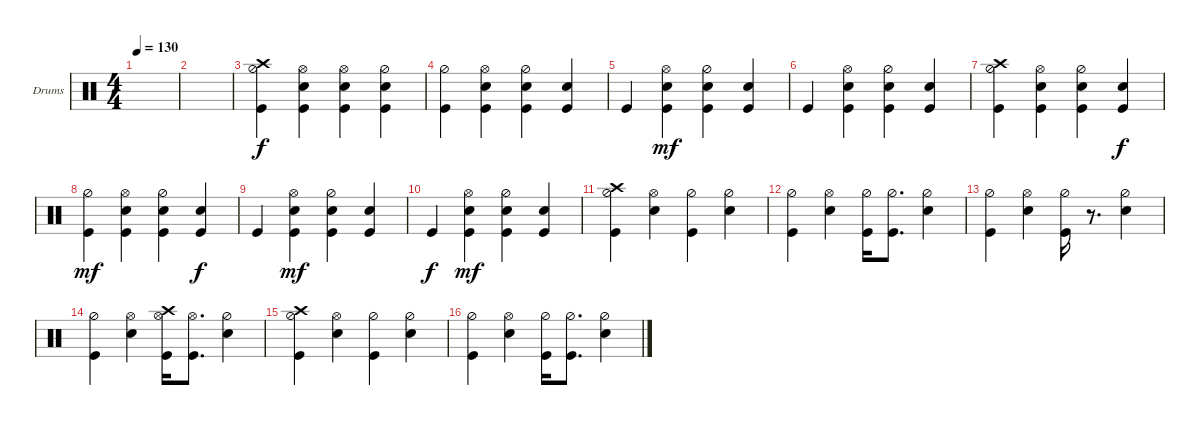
\defaultSystemsLayout 4
\bracketExtendMode groupsimilarinstruments
\firstSystemTrackNameOrientation horizontal
\otherSystemsTrackNameOrientation horizontal
\track ("Drumkit" "Drums") {instrument percussion}
\staff {score}
\articulation defaults
\ts (4 4)
\tempo 130
\clef neutral
\ks c
|
|
("Hi-Hat (half)" "Kick (hit)" "Crash high (hit)").4 ("Snare (hit) 2" "Hi-Hat (open)" "Kick (hit)").4 ("Snare (hit) 2" "Hi-Hat (open)" "Kick (hit)").4 ("Snare (hit) 2" "Hi-Hat (half)" "Kick (hit)").4 |
("Hi-Hat (half)" "Kick (hit)").4 ("Snare (hit) 2" "Hi-Hat (open)" "Kick (hit)").4 ("Snare (hit) 2" "Hi-Hat (half)" "Kick (hit)").4 ("Kick (hit)" "Snare (hit) 2").4{dy f} |
"Kick (hit)".4 ("Snare (hit) 2" "Hi-Hat (open)" "Kick (hit)").4{dy mf} ("Snare (hit) 2" "Hi-Hat (half)" "Kick (hit)").4 ("Kick (hit)" "Snare (hit) 2").4 |
"Kick (hit)".4 ("Snare (hit) 2" "Hi-Hat (open)" "Kick (hit)").4 ("Snare (hit) 2" "Hi-Hat (half)" "Kick (hit)").4 ("Kick (hit)" "Snare (hit) 2").4 |
("Hi-Hat (half)" "Kick (hit)" "Crash high (hit)").4 ("Snare (hit) 2" "Hi-Hat (open)" "Kick (hit)").4 ("Snare (hit) 2" "Hi-Hat (half)" "Kick (hit)").4 ("Kick (hit)" "Snare (hit) 2").4{dy f} |
("Hi-Hat (half)" "Kick (hit)").4{dy mf} ("Snare (hit) 2" "Hi-Hat (open)" "Kick (hit)").4 ("Snare (hit) 2" "Hi-Hat (half)" "Kick (hit)").4 ("Kick (hit)" "Snare (hit) 2").4{dy f} |
"Kick (hit)".4 ("Snare (hit) 2" "Hi-Hat (open)" "Kick (hit)").4{dy mf} ("Snare (hit) 2" "Hi-Hat (half)" "Kick (hit)").4 ("Kick (hit)" "Snare (hit) 2").4 |
"Kick (hit)".4{dy f} ("Snare (hit) 2" "Hi-Hat (open)" "Kick (hit)").4{dy mf} ("Snare (hit) 2" "Hi-Hat (half)" "Kick (hit)").4 ("Kick (hit)" "Snare (hit) 2").4 |
("Hi-Hat (half)" "Kick (hit)" "Crash high (hit)").4 ("Snare (hit) 2" "Hi-Hat (open)").4 ("Hi-Hat (half)" "Kick (hit)").4 ("Snare (hit) 2" "Hi-Hat (half)").4 |
("Hi-Hat (half)" "Kick (hit)").4 ("Snare (hit) 2" "Hi-Hat (open)").4 ("Hi-Hat (half)" "Kick (hit)").16 ("Hi-Hat (half)" "Kick (hit)").8{d} ("Snare (hit) 2" "Hi-Hat (half)").4 |
("Hi-Hat (half)" "Kick (hit)").4 ("Snare (hit) 2" "Hi-Hat (open)").4 ("Hi-Hat (half)" "Kick (hit)").16 r.8{d} ("Snare (hit) 2" "Hi-Hat (half)").4 |
("Hi-Hat (half)" "Kick (hit)").4 ("Snare (hit) 2" "Hi-Hat (open)").4 ("Hi-Hat (open)" "Kick (hit)" "Crash high (hit)").16 ("Hi-Hat (open)" "Kick (hit)").8{d} ("Snare (hit) 2" "Hi-Hat (half)").4 |
("Hi-Hat (half)" "Kick (hit)" "Crash high (hit)").4 ("Snare (hit) 2" "Hi-Hat (open)").4 ("Hi-Hat (half)" "Kick (hit)").4 ("Snare (hit) 2" "Hi-Hat (half)").4 |
("Hi-Hat (half)" "Kick (hit)").4 ("Snare (hit) 2" "Hi-Hat (open)").4 ("Hi-Hat (half)" "Kick (hit)").16 ("Hi-Hat (half)" "Kick (hit)").8{d} ("Snare (hit) 2" "Hi-Hat (half)").4
